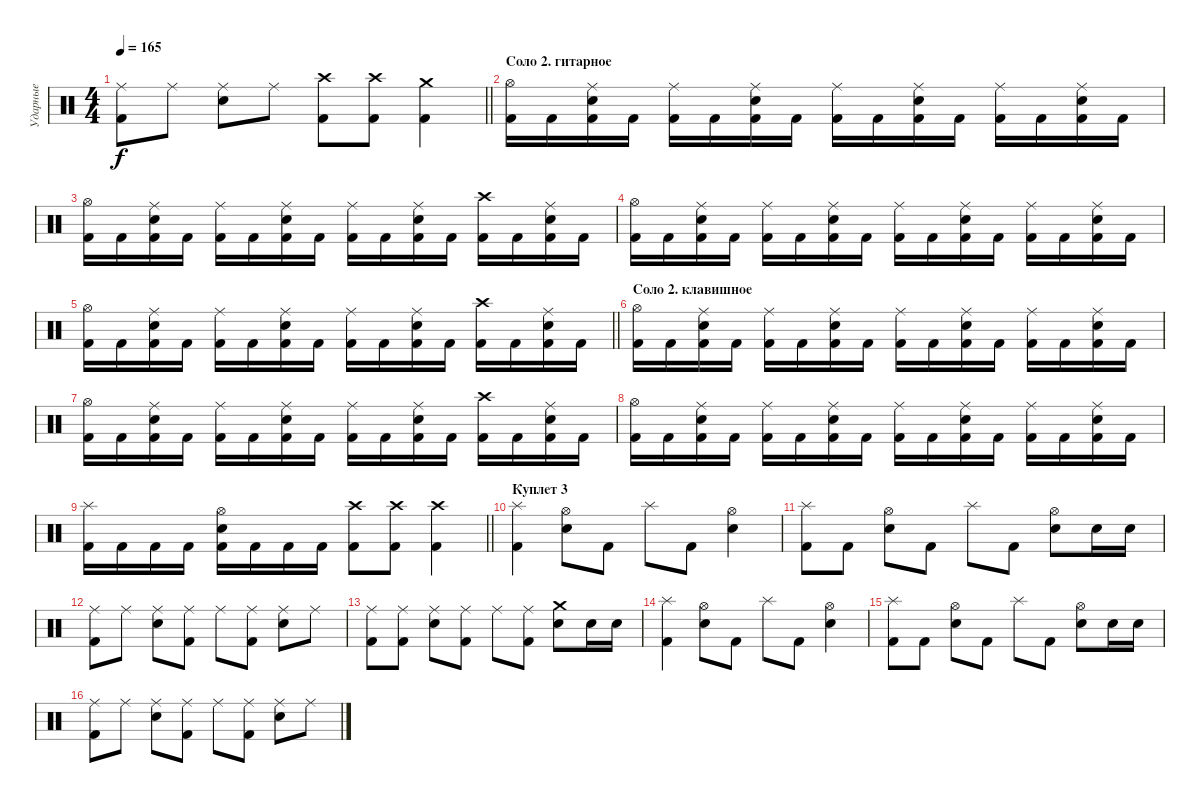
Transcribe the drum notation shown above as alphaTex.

\track ("Ударные" "Ударные") {instrument percussion}
\staff {score}
\articulation defaults
\ts (4 4)
\tempo 165
\clef neutral
\barLineRight lightlight
\ks c
("Ride (middle)" "Kick (hit) 2").8{dy f} "Ride (middle)".8 ("Ride (middle)" "Electric Snare (hit)").8 "Ride (middle)".8 ("Crash high (hit)" "Kick (hit) 2").8 ("Crash high (hit)" "Kick (hit) 2").8 ("Crash medium (hit)" "Kick (hit) 2").4 |
\section ("" "Соло 2. гитарное")
("Hi-Hat (open)" "Kick (hit) 2").16 "Kick (hit) 2".16 ("Ride (middle)" "Electric Snare (hit)" "Kick (hit) 2").16 "Kick (hit) 2".16 ("Ride (middle)" "Kick (hit) 2").16 "Kick (hit) 2".16 ("Ride (middle)" "Electric Snare (hit)" "Kick (hit) 2").16 "Kick (hit) 2".16 ("Ride (middle)" "Kick (hit) 2").16 "Kick (hit) 2".16 ("Ride (middle)" "Electric Snare (hit)" "Kick (hit) 2").16 "Kick (hit) 2".16 ("Ride (middle)" "Kick (hit) 2").16 "Kick (hit) 2".16 ("Ride (middle)" "Electric Snare (hit)" "Kick (hit) 2").16 "Kick (hit) 2".16 |
("Hi-Hat (open)" "Kick (hit) 2").16 "Kick (hit) 2".16 ("Ride (middle)" "Electric Snare (hit)" "Kick (hit) 2").16 "Kick (hit) 2".16 ("Ride (middle)" "Kick (hit) 2").16 "Kick (hit) 2".16 ("Ride (middle)" "Electric Snare (hit)" "Kick (hit) 2").16 "Kick (hit) 2".16 ("Ride (middle)" "Kick (hit) 2").16 "Kick (hit) 2".16 ("Ride (middle)" "Electric Snare (hit)" "Kick (hit) 2").16 "Kick (hit) 2".16 ("Crash high (hit)" "Kick (hit) 2").16 "Kick (hit) 2".16 ("Ride (middle)" "Electric Snare (hit)" "Kick (hit) 2").16 "Kick (hit) 2".16 |
("Hi-Hat (open)" "Kick (hit) 2").16 "Kick (hit) 2".16 ("Ride (middle)" "Electric Snare (hit)" "Kick (hit) 2").16 "Kick (hit) 2".16 ("Ride (middle)" "Kick (hit) 2").16 "Kick (hit) 2".16 ("Ride (middle)" "Electric Snare (hit)" "Kick (hit) 2").16 "Kick (hit) 2".16 ("Ride (middle)" "Kick (hit) 2").16 "Kick (hit) 2".16 ("Ride (middle)" "Electric Snare (hit)" "Kick (hit) 2").16 "Kick (hit) 2".16 ("Ride (middle)" "Kick (hit) 2").16 "Kick (hit) 2".16 ("Ride (middle)" "Electric Snare (hit)" "Kick (hit) 2").16 "Kick (hit) 2".16 |
\barLineRight lightlight
("Hi-Hat (open)" "Kick (hit) 2").16 "Kick (hit) 2".16 ("Ride (middle)" "Electric Snare (hit)" "Kick (hit) 2").16 "Kick (hit) 2".16 ("Ride (middle)" "Kick (hit) 2").16 "Kick (hit) 2".16 ("Ride (middle)" "Electric Snare (hit)" "Kick (hit) 2").16 "Kick (hit) 2".16 ("Ride (middle)" "Kick (hit) 2").16 "Kick (hit) 2".16 ("Ride (middle)" "Electric Snare (hit)" "Kick (hit) 2").16 "Kick (hit) 2".16 ("Crash high (hit)" "Kick (hit) 2").16 "Kick (hit) 2".16 ("Ride (middle)" "Electric Snare (hit)" "Kick (hit) 2").16 "Kick (hit) 2".16 |
\section ("" "Соло 2. клавишное")
("Hi-Hat (open)" "Kick (hit) 2").16 "Kick (hit) 2".16 ("Ride (middle)" "Electric Snare (hit)" "Kick (hit) 2").16 "Kick (hit) 2".16 ("Ride (middle)" "Kick (hit) 2").16 "Kick (hit) 2".16 ("Ride (middle)" "Electric Snare (hit)" "Kick (hit) 2").16 "Kick (hit) 2".16 ("Ride (middle)" "Kick (hit) 2").16 "Kick (hit) 2".16 ("Ride (middle)" "Electric Snare (hit)" "Kick (hit) 2").16 "Kick (hit) 2".16 ("Ride (middle)" "Kick (hit) 2").16 "Kick (hit) 2".16 ("Ride (middle)" "Electric Snare (hit)" "Kick (hit) 2").16 "Kick (hit) 2".16 |
("Hi-Hat (open)" "Kick (hit) 2").16 "Kick (hit) 2".16 ("Ride (middle)" "Electric Snare (hit)" "Kick (hit) 2").16 "Kick (hit) 2".16 ("Ride (middle)" "Kick (hit) 2").16 "Kick (hit) 2".16 ("Ride (middle)" "Electric Snare (hit)" "Kick (hit) 2").16 "Kick (hit) 2".16 ("Ride (middle)" "Kick (hit) 2").16 "Kick (hit) 2".16 ("Ride (middle)" "Electric Snare (hit)" "Kick (hit) 2").16 "Kick (hit) 2".16 ("Crash high (hit)" "Kick (hit) 2").16 "Kick (hit) 2".16 ("Ride (middle)" "Electric Snare (hit)" "Kick (hit) 2").16 "Kick (hit) 2".16 |
("Hi-Hat (open)" "Kick (hit) 2").16 "Kick (hit) 2".16 ("Ride (middle)" "Electric Snare (hit)" "Kick (hit) 2").16 "Kick (hit) 2".16 ("Ride (middle)" "Kick (hit) 2").16 "Kick (hit) 2".16 ("Ride (middle)" "Electric Snare (hit)" "Kick (hit) 2").16 "Kick (hit) 2".16 ("Ride (middle)" "Kick (hit) 2").16 "Kick (hit) 2".16 ("Ride (middle)" "Electric Snare (hit)" "Kick (hit) 2").16 "Kick (hit) 2".16 ("Ride (middle)" "Kick (hit) 2").16 "Kick (hit) 2".16 ("Ride (middle)" "Electric Snare (hit)" "Kick (hit) 2").16 "Kick (hit) 2".16 |
\barLineRight lightlight
("Splash (hit)" "Kick (hit) 2").16 "Kick (hit) 2".16 "Kick (hit) 2".16 "Kick (hit) 2".16 ("Hi-Hat (open)" "Electric Snare (hit)" "Kick (hit) 2").16 "Kick (hit) 2".16 "Kick (hit) 2".16 "Kick (hit) 2".16 ("Crash high (hit)" "Kick (hit) 2").8 ("Crash high (hit)" "Kick (hit) 2").8 ("Crash high (hit)" "Kick (hit) 2").4 |
\section ("" "Куплет 3")
("Splash (hit)" "Kick (hit) 2").4 ("Hi-Hat (open)" "Electric Snare (hit)").8 "Kick (hit) 2".8 "Splash (hit)".8 "Kick (hit) 2".8 ("Hi-Hat (open)" "Electric Snare (hit)").4 |
("Splash (hit)" "Kick (hit) 2").8 "Kick (hit) 2".8 ("Hi-Hat (open)" "Electric Snare (hit)").8 "Kick (hit) 2".8 "Splash (hit)".8 "Kick (hit) 2".8 ("Hi-Hat (open)" "Electric Snare (hit)").8 "Electric Snare (hit)".16 "Electric Snare (hit)".16 |
("Ride (middle)" "Kick (hit) 2").8 "Ride (middle)".8 ("Ride (middle)" "Electric Snare (hit)").8 ("Ride (middle)" "Kick (hit) 2").8 "Ride (middle)".8 ("Ride (middle)" "Kick (hit) 2").8 ("Ride (middle)" "Electric Snare (hit)").8 "Ride (middle)".8 |
("Ride (middle)" "Kick (hit) 2").8 ("Ride (middle)" "Kick (hit) 2").8 ("Ride (middle)" "Electric Snare (hit)").8 ("Ride (middle)" "Kick (hit) 2").8 "Ride (middle)".8 ("Ride (middle)" "Kick (hit) 2").8 ("Crash medium (hit)" "Electric Snare (hit)").8 "Electric Snare (hit)".16 "Electric Snare (hit)".16 |
("Splash (hit)" "Kick (hit) 2").4 ("Hi-Hat (open)" "Electric Snare (hit)").8 "Kick (hit) 2".8 "Splash (hit)".8 "Kick (hit) 2".8 ("Hi-Hat (open)" "Electric Snare (hit)").4 |
("Splash (hit)" "Kick (hit) 2").8 "Kick (hit) 2".8 ("Hi-Hat (open)" "Electric Snare (hit)").8 "Kick (hit) 2".8 "Splash (hit)".8 "Kick (hit) 2".8 ("Hi-Hat (open)" "Electric Snare (hit)").8 "Electric Snare (hit)".16 "Electric Snare (hit)".16 |
("Ride (middle)" "Kick (hit) 2").8 "Ride (middle)".8 ("Ride (middle)" "Electric Snare (hit)").8 ("Ride (middle)" "Kick (hit) 2").8 "Ride (middle)".8 ("Ride (middle)" "Kick (hit) 2").8 ("Ride (middle)" "Electric Snare (hit)").8 "Ride (middle)".8
